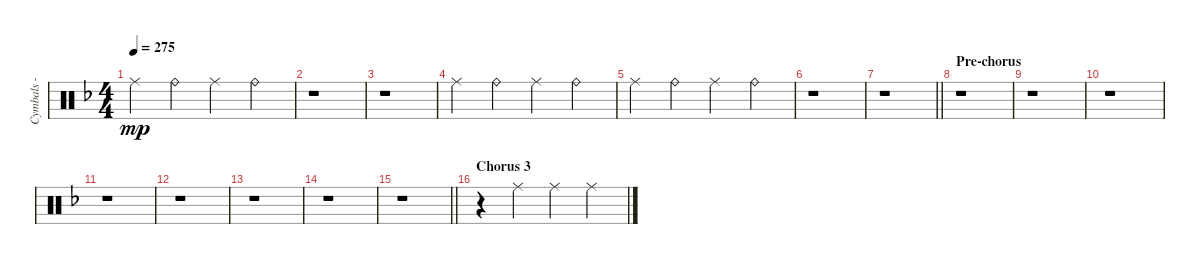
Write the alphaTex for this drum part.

\track ("Cymbals - ride" "Cymbals - ") {instrument percussion}
\staff {score}
\articulation defaults
\ts (4 4)
\tempo 275
\clef neutral
\ks dminor "Ride (middle)".4{dy mp} "Ride (bell)".4 "Ride (middle)".4 "Ride (bell)".4
|
r.1 |
r.1 |
"Ride (middle)".4 "Ride (bell)".4 "Ride (middle)".4 "Ride (bell)".4 |
"Ride (middle)".4 "Ride (bell)".4 "Ride (middle)".4 "Ride (bell)".4 |
r.1 |
\barLineRight lightlight
r.1 |
\section ("" "Pre-chorus")
r.1 |
r.1 |
r.1 |
r.1 |
r.1 |
r.1 |
r.1 |
\barLineRight lightlight
r.1 |
\section ("" "Chorus 3")
r.4 "Ride (middle)".4 "Ride (middle)".4 "Ride (middle)".4
